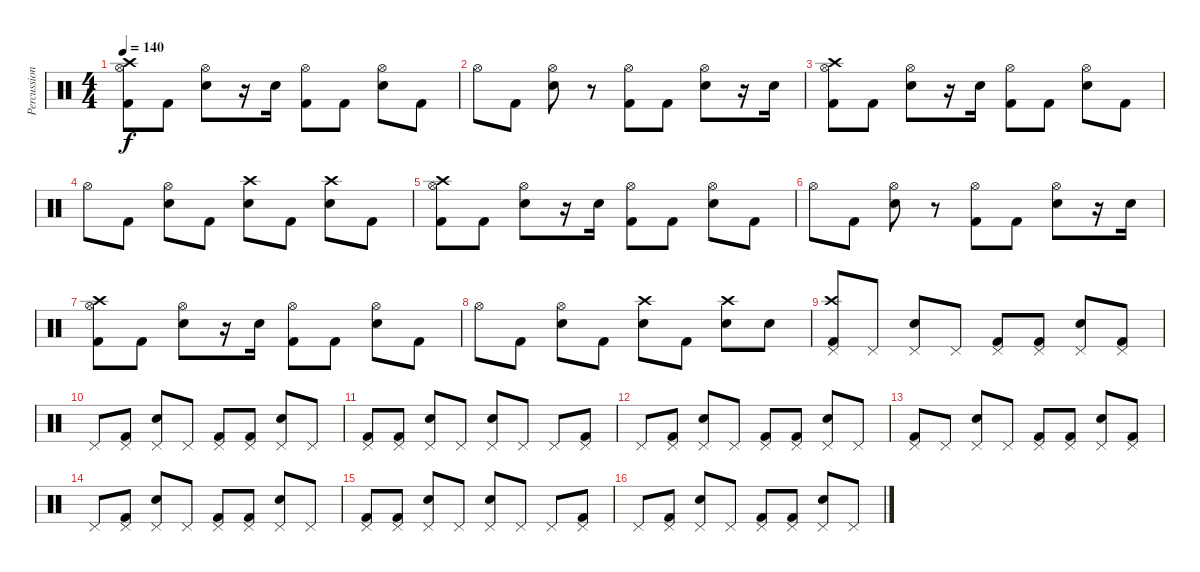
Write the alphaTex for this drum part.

\track ("Percussion" "Percussion") {instrument percussion}
\staff {score}
\articulation defaults
\ts (4 4)
\tempo 140
\clef neutral
\ks c
("Kick (hit) 2" "Hi-Hat (open)" "Crash high (hit)").8{dy f} "Kick (hit) 2".8 ("Snare (hit) 2" "Hi-Hat (open)").8 r.16 "Snare (hit) 2".16 ("Kick (hit) 2" "Hi-Hat (open)").8 "Kick (hit) 2".8 ("Snare (hit) 2" "Hi-Hat (open)").8 "Kick (hit) 2".8 |
"Hi-Hat (open)".8 "Kick (hit) 2".8 ("Snare (hit) 2" "Hi-Hat (open)").8 r.8 ("Kick (hit) 2" "Hi-Hat (open)").8 "Kick (hit) 2".8 ("Snare (hit) 2" "Hi-Hat (open)").8 r.16 "Snare (hit) 2".16 |
("Kick (hit) 2" "Hi-Hat (open)" "Crash high (hit)").8 "Kick (hit) 2".8 ("Snare (hit) 2" "Hi-Hat (open)").8 r.16 "Snare (hit) 2".16 ("Kick (hit) 2" "Hi-Hat (open)").8 "Kick (hit) 2".8 ("Snare (hit) 2" "Hi-Hat (open)").8 "Kick (hit) 2".8 |
"Hi-Hat (open)".8 "Kick (hit) 2".8 ("Snare (hit) 2" "Hi-Hat (open)").8 "Kick (hit) 2".8 ("Snare (hit) 2" "Crash high (hit)").8 "Kick (hit) 2".8 ("Snare (hit) 2" "Crash high (hit)").8 "Kick (hit) 2".8 |
("Kick (hit) 2" "Hi-Hat (open)" "Crash high (hit)").8 "Kick (hit) 2".8 ("Snare (hit) 2" "Hi-Hat (open)").8 r.16 "Snare (hit) 2".16 ("Kick (hit) 2" "Hi-Hat (open)").8 "Kick (hit) 2".8 ("Snare (hit) 2" "Hi-Hat (open)").8 "Kick (hit) 2".8 |
"Hi-Hat (open)".8 "Kick (hit) 2".8 ("Snare (hit) 2" "Hi-Hat (open)").8 r.8 ("Kick (hit) 2" "Hi-Hat (open)").8 "Kick (hit) 2".8 ("Snare (hit) 2" "Hi-Hat (open)").8 r.16 "Snare (hit) 2".16 |
("Kick (hit) 2" "Hi-Hat (open)" "Crash high (hit)").8 "Kick (hit) 2".8 ("Snare (hit) 2" "Hi-Hat (open)").8 r.16 "Snare (hit) 2".16 ("Kick (hit) 2" "Hi-Hat (open)").8 "Kick (hit) 2".8 ("Snare (hit) 2" "Hi-Hat (open)").8 "Kick (hit) 2".8 |
"Hi-Hat (open)".8 "Kick (hit) 2".8 ("Snare (hit) 2" "Hi-Hat (open)").8 "Kick (hit) 2".8 ("Snare (hit) 2" "Crash high (hit)").8 "Kick (hit) 2".8 ("Snare (hit) 2" "Crash high (hit)").8 "Snare (hit) 2".8 |
("Kick (hit) 2" "Pedal Hi-Hat (hit)" "Crash high (hit)").8 "Pedal Hi-Hat (hit)".8 ("Snare (hit) 2" "Pedal Hi-Hat (hit)").8 "Pedal Hi-Hat (hit)".8 ("Kick (hit) 2" "Pedal Hi-Hat (hit)").8 ("Kick (hit) 2" "Pedal Hi-Hat (hit)").8 ("Snare (hit) 2" "Pedal Hi-Hat (hit)").8 ("Kick (hit) 2" "Pedal Hi-Hat (hit)").8 |
"Pedal Hi-Hat (hit)".8 ("Kick (hit) 2" "Pedal Hi-Hat (hit)").8 ("Snare (hit) 2" "Pedal Hi-Hat (hit)").8 "Pedal Hi-Hat (hit)".8 ("Kick (hit) 2" "Pedal Hi-Hat (hit)").8 ("Kick (hit) 2" "Pedal Hi-Hat (hit)").8 ("Snare (hit) 2" "Pedal Hi-Hat (hit)").8 "Pedal Hi-Hat (hit)".8 |
("Kick (hit) 2" "Pedal Hi-Hat (hit)").8 ("Kick (hit) 2" "Pedal Hi-Hat (hit)").8 ("Snare (hit) 2" "Pedal Hi-Hat (hit)").8 "Pedal Hi-Hat (hit)".8 ("Snare (hit) 2" "Pedal Hi-Hat (hit)").8 "Pedal Hi-Hat (hit)".8 "Pedal Hi-Hat (hit)".8 ("Kick (hit) 2" "Pedal Hi-Hat (hit)").8 |
"Pedal Hi-Hat (hit)".8 ("Kick (hit) 2" "Pedal Hi-Hat (hit)").8 ("Snare (hit) 2" "Pedal Hi-Hat (hit)").8 "Pedal Hi-Hat (hit)".8 ("Kick (hit) 2" "Pedal Hi-Hat (hit)").8 ("Kick (hit) 2" "Pedal Hi-Hat (hit)").8 ("Snare (hit) 2" "Pedal Hi-Hat (hit)").8 "Pedal Hi-Hat (hit)".8 |
("Kick (hit) 2" "Pedal Hi-Hat (hit)").8 "Pedal Hi-Hat (hit)".8 ("Snare (hit) 2" "Pedal Hi-Hat (hit)").8 "Pedal Hi-Hat (hit)".8 ("Kick (hit) 2" "Pedal Hi-Hat (hit)").8 ("Kick (hit) 2" "Pedal Hi-Hat (hit)").8 ("Snare (hit) 2" "Pedal Hi-Hat (hit)").8 ("Kick (hit) 2" "Pedal Hi-Hat (hit)").8 |
"Pedal Hi-Hat (hit)".8 ("Kick (hit) 2" "Pedal Hi-Hat (hit)").8 ("Snare (hit) 2" "Pedal Hi-Hat (hit)").8 "Pedal Hi-Hat (hit)".8 ("Kick (hit) 2" "Pedal Hi-Hat (hit)").8 ("Kick (hit) 2" "Pedal Hi-Hat (hit)").8 ("Snare (hit) 2" "Pedal Hi-Hat (hit)").8 "Pedal Hi-Hat (hit)".8 |
("Kick (hit) 2" "Pedal Hi-Hat (hit)").8 ("Kick (hit) 2" "Pedal Hi-Hat (hit)").8 ("Snare (hit) 2" "Pedal Hi-Hat (hit)").8 "Pedal Hi-Hat (hit)".8 ("Snare (hit) 2" "Pedal Hi-Hat (hit)").8 "Pedal Hi-Hat (hit)".8 "Pedal Hi-Hat (hit)".8 ("Kick (hit) 2" "Pedal Hi-Hat (hit)").8 |
"Pedal Hi-Hat (hit)".8 ("Kick (hit) 2" "Pedal Hi-Hat (hit)").8 ("Snare (hit) 2" "Pedal Hi-Hat (hit)").8 "Pedal Hi-Hat (hit)".8 ("Kick (hit) 2" "Pedal Hi-Hat (hit)").8 ("Kick (hit) 2" "Pedal Hi-Hat (hit)").8 ("Snare (hit) 2" "Pedal Hi-Hat (hit)").8 "Pedal Hi-Hat (hit)".8
